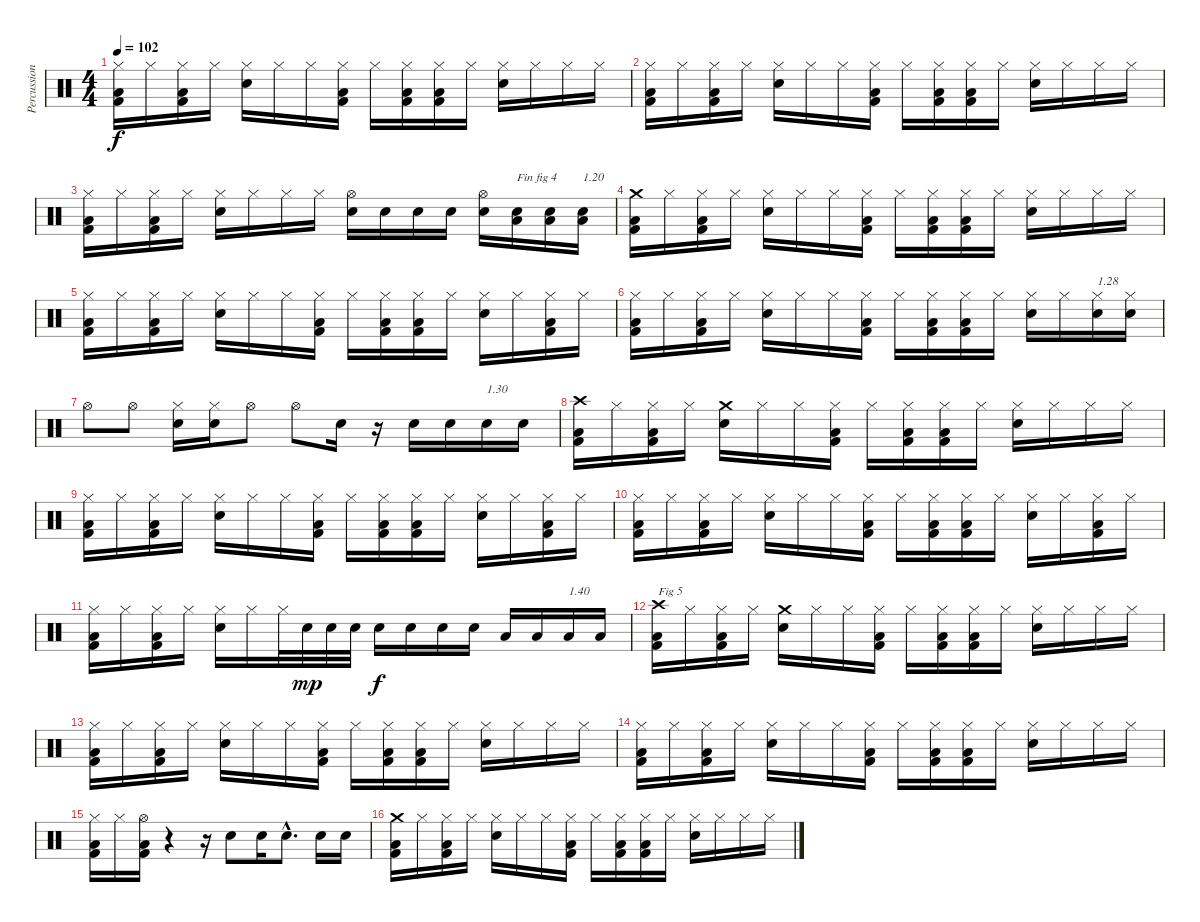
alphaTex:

\track ("Percussions" "Percussion") {instrument percussion}
\staff {score}
\articulation defaults
\ts (4 4)
\tempo 102
\clef neutral
\ks c
("Kick (hit) 2" "Low Floor Tom (hit)" "Hi-Hat (closed)").16{dy f} "Hi-Hat (closed)".16 ("Kick (hit) 2" "Low Floor Tom (hit)" "Hi-Hat (closed)").16 "Hi-Hat (closed)".16 ("Snare (hit) 2" "Hi-Hat (closed)").16 "Hi-Hat (closed)".16 "Hi-Hat (closed)".16 ("Kick (hit) 2" "Low Floor Tom (hit)" "Hi-Hat (closed)").16 "Hi-Hat (closed)".16 ("Kick (hit) 2" "Low Floor Tom (hit)" "Hi-Hat (closed)").16 ("Kick (hit) 2" "Low Floor Tom (hit)" "Hi-Hat (closed)").16 "Hi-Hat (closed)".16 ("Snare (hit) 2" "Hi-Hat (closed)").16 "Hi-Hat (closed)".16 "Hi-Hat (closed)".16 "Hi-Hat (closed)".16 |
("Kick (hit) 2" "Low Floor Tom (hit)" "Hi-Hat (closed)").16 "Hi-Hat (closed)".16 ("Kick (hit) 2" "Low Floor Tom (hit)" "Hi-Hat (closed)").16 "Hi-Hat (closed)".16 ("Snare (hit) 2" "Hi-Hat (closed)").16 "Hi-Hat (closed)".16 "Hi-Hat (closed)".16 ("Kick (hit) 2" "Low Floor Tom (hit)" "Hi-Hat (closed)").16 "Hi-Hat (closed)".16 ("Kick (hit) 2" "Low Floor Tom (hit)" "Hi-Hat (closed)").16 ("Kick (hit) 2" "Low Floor Tom (hit)" "Hi-Hat (closed)").16 "Hi-Hat (closed)".16 ("Snare (hit) 2" "Hi-Hat (closed)").16 "Hi-Hat (closed)".16 "Hi-Hat (closed)".16 "Hi-Hat (closed)".16 |
("Kick (hit) 2" "Low Floor Tom (hit)" "Hi-Hat (closed)").16 "Hi-Hat (closed)".16 ("Kick (hit) 2" "Low Floor Tom (hit)" "Hi-Hat (closed)").16 "Hi-Hat (closed)".16 ("Snare (hit) 2" "Hi-Hat (closed)").16 "Hi-Hat (closed)".16 "Hi-Hat (closed)".16 "Hi-Hat (closed)".16 ("Snare (hit) 2" "Hi-Hat (open)").16 "Electric Snare (hit)".16 "Electric Snare (hit)".16 "Electric Snare (hit)".16 ("Snare (hit) 2" "Hi-Hat (open)").16 ("Low Tom (hit)" "Electric Snare (hit)").16{txt "Fin fig 4"} ("Low Tom (hit)" "Electric Snare (hit)").16 ("Low Tom (hit)" "Electric Snare (hit)").16{txt "1.20"} |
("Kick (hit) 2" "Low Floor Tom (hit)" "Crash medium (hit)").16 "Hi-Hat (closed)".16 ("Kick (hit) 2" "Low Floor Tom (hit)" "Hi-Hat (closed)").16 "Hi-Hat (closed)".16 ("Snare (hit) 2" "Hi-Hat (closed)").16 "Hi-Hat (closed)".16 "Hi-Hat (closed)".16 ("Kick (hit) 2" "Low Floor Tom (hit)" "Hi-Hat (closed)").16 "Hi-Hat (closed)".16 ("Kick (hit) 2" "Low Floor Tom (hit)" "Hi-Hat (closed)").16 ("Kick (hit) 2" "Low Floor Tom (hit)" "Hi-Hat (closed)").16 "Hi-Hat (closed)".16 ("Snare (hit) 2" "Hi-Hat (closed)").16 "Hi-Hat (closed)".16 "Hi-Hat (closed)".16 "Hi-Hat (closed)".16 |
("Kick (hit) 2" "Low Floor Tom (hit)" "Hi-Hat (closed)").16 "Hi-Hat (closed)".16 ("Kick (hit) 2" "Low Floor Tom (hit)" "Hi-Hat (closed)").16 "Hi-Hat (closed)".16 ("Snare (hit) 2" "Hi-Hat (closed)").16 "Hi-Hat (closed)".16 "Hi-Hat (closed)".16 ("Kick (hit) 2" "Low Floor Tom (hit)" "Hi-Hat (closed)").16 "Hi-Hat (closed)".16 ("Kick (hit) 2" "Low Floor Tom (hit)" "Hi-Hat (closed)").16 ("Kick (hit) 2" "Low Floor Tom (hit)" "Hi-Hat (closed)").16 "Hi-Hat (closed)".16 ("Snare (hit) 2" "Hi-Hat (closed)").16 "Hi-Hat (closed)".16 ("Kick (hit) 2" "Low Floor Tom (hit)" "Hi-Hat (closed)").16 "Hi-Hat (closed)".16 |
("Kick (hit) 2" "Low Floor Tom (hit)" "Hi-Hat (closed)").16 "Hi-Hat (closed)".16 ("Kick (hit) 2" "Low Floor Tom (hit)" "Hi-Hat (closed)").16 "Hi-Hat (closed)".16 ("Snare (hit) 2" "Hi-Hat (closed)").16 "Hi-Hat (closed)".16 "Hi-Hat (closed)".16 ("Kick (hit) 2" "Low Floor Tom (hit)" "Hi-Hat (closed)").16 "Hi-Hat (closed)".16 ("Kick (hit) 2" "Low Floor Tom (hit)" "Hi-Hat (closed)").16 ("Kick (hit) 2" "Low Floor Tom (hit)" "Hi-Hat (closed)").16 "Hi-Hat (closed)".16 ("Snare (hit) 2" "Hi-Hat (closed)").16 "Hi-Hat (closed)".16 ("Snare (hit) 2" "Hi-Hat (closed)").16{txt "1.28"} ("Snare (hit) 2" "Hi-Hat (closed)").16 |
"Hi-Hat (open)".8 "Hi-Hat (open)".8 ("Snare (hit) 2" "Hi-Hat (closed)").16 ("Snare (hit) 2" "Hi-Hat (closed)").16 "Hi-Hat (open)".8 "Hi-Hat (open)".8 "Snare (hit) 2".16 r.16 "Snare (hit) 2".16 "Snare (hit) 2".16 "Snare (hit) 2".16{txt "1.30"} "Snare (hit) 2".16 |
("Kick (hit) 2" "Low Floor Tom (hit)" "Crash high (hit)").16 "Hi-Hat (closed)".16 ("Kick (hit) 2" "Low Floor Tom (hit)" "Hi-Hat (closed)").16 "Hi-Hat (closed)".16 ("Snare (hit) 2" "Crash medium (hit)").16 "Hi-Hat (closed)".16 "Hi-Hat (closed)".16 ("Kick (hit) 2" "Low Floor Tom (hit)" "Hi-Hat (closed)").16 "Hi-Hat (closed)".16 ("Kick (hit) 2" "Low Floor Tom (hit)" "Hi-Hat (closed)").16 ("Kick (hit) 2" "Low Floor Tom (hit)" "Hi-Hat (closed)").16 "Hi-Hat (closed)".16 ("Snare (hit) 2" "Hi-Hat (closed)").16 "Hi-Hat (closed)".16 "Hi-Hat (closed)".16 "Hi-Hat (closed)".16 |
("Kick (hit) 2" "Low Floor Tom (hit)" "Hi-Hat (closed)").16 "Hi-Hat (closed)".16 ("Kick (hit) 2" "Low Floor Tom (hit)" "Hi-Hat (closed)").16 "Hi-Hat (closed)".16 ("Snare (hit) 2" "Hi-Hat (closed)").16 "Hi-Hat (closed)".16 "Hi-Hat (closed)".16 ("Kick (hit) 2" "Low Floor Tom (hit)" "Hi-Hat (closed)").16 "Hi-Hat (closed)".16 ("Kick (hit) 2" "Low Floor Tom (hit)" "Hi-Hat (closed)").16 ("Kick (hit) 2" "Low Floor Tom (hit)" "Hi-Hat (closed)").16 "Hi-Hat (closed)".16 ("Snare (hit) 2" "Hi-Hat (closed)").16 "Hi-Hat (closed)".16 ("Kick (hit) 2" "Low Floor Tom (hit)" "Hi-Hat (closed)").16 "Hi-Hat (closed)".16 |
("Kick (hit) 2" "Low Floor Tom (hit)" "Hi-Hat (closed)").16 "Hi-Hat (closed)".16 ("Kick (hit) 2" "Low Floor Tom (hit)" "Hi-Hat (closed)").16 "Hi-Hat (closed)".16 ("Snare (hit) 2" "Hi-Hat (closed)").16 "Hi-Hat (closed)".16 "Hi-Hat (closed)".16 ("Kick (hit) 2" "Low Floor Tom (hit)" "Hi-Hat (closed)").16 "Hi-Hat (closed)".16 ("Kick (hit) 2" "Low Floor Tom (hit)" "Hi-Hat (closed)").16 ("Kick (hit) 2" "Low Floor Tom (hit)" "Hi-Hat (closed)").16 "Hi-Hat (closed)".16 ("Snare (hit) 2" "Hi-Hat (closed)").16 "Hi-Hat (closed)".16 ("Kick (hit) 2" "Low Floor Tom (hit)" "Hi-Hat (closed)").16 "Hi-Hat (closed)".16 |
("Kick (hit) 2" "Low Floor Tom (hit)" "Hi-Hat (closed)").16 "Hi-Hat (closed)".16 ("Kick (hit) 2" "Low Floor Tom (hit)" "Hi-Hat (closed)").16 "Hi-Hat (closed)".16 ("Snare (hit) 2" "Hi-Hat (closed)").16 "Hi-Hat (closed)".16 "Hi-Hat (closed)".32 "Snare (hit) 2".32{dy mp} "Snare (hit) 2".32 "Snare (hit) 2".32 "Snare (hit) 2".16{dy f} "Snare (hit) 2".16 "Snare (hit) 2".16 "Snare (hit) 2".16 "Low Tom (hit)".16 "Low Tom (hit)".16 "Low Tom (hit)".16{txt "1.40"} "Low Tom (hit)".16 |
("Kick (hit) 2" "Low Floor Tom (hit)" "Crash high (hit)").16{txt "Fig 5"} "Hi-Hat (closed)".16 ("Kick (hit) 2" "Low Floor Tom (hit)" "Hi-Hat (closed)").16 "Hi-Hat (closed)".16 ("Snare (hit) 2" "Crash medium (hit)").16 "Hi-Hat (closed)".16 "Hi-Hat (closed)".16 ("Kick (hit) 2" "Low Floor Tom (hit)" "Hi-Hat (closed)").16 "Hi-Hat (closed)".16 ("Kick (hit) 2" "Low Floor Tom (hit)" "Hi-Hat (closed)").16 ("Kick (hit) 2" "Low Floor Tom (hit)" "Hi-Hat (closed)").16 "Hi-Hat (closed)".16 ("Snare (hit) 2" "Hi-Hat (closed)").16 "Hi-Hat (closed)".16 "Hi-Hat (closed)".16 "Hi-Hat (closed)".16 |
("Kick (hit) 2" "Low Floor Tom (hit)" "Hi-Hat (closed)").16 "Hi-Hat (closed)".16 ("Kick (hit) 2" "Low Floor Tom (hit)" "Hi-Hat (closed)").16 "Hi-Hat (closed)".16 ("Snare (hit) 2" "Hi-Hat (closed)").16 "Hi-Hat (closed)".16 "Hi-Hat (closed)".16 ("Kick (hit) 2" "Low Floor Tom (hit)" "Hi-Hat (closed)").16 "Hi-Hat (closed)".16 ("Kick (hit) 2" "Low Floor Tom (hit)" "Hi-Hat (closed)").16 ("Kick (hit) 2" "Low Floor Tom (hit)" "Hi-Hat (closed)").16 "Hi-Hat (closed)".16 ("Snare (hit) 2" "Hi-Hat (closed)").16 "Hi-Hat (closed)".16 "Hi-Hat (closed)".16 "Hi-Hat (closed)".16 |
("Kick (hit) 2" "Low Floor Tom (hit)" "Hi-Hat (closed)").16 "Hi-Hat (closed)".16 ("Kick (hit) 2" "Low Floor Tom (hit)" "Hi-Hat (closed)").16 "Hi-Hat (closed)".16 ("Snare (hit) 2" "Hi-Hat (closed)").16 "Hi-Hat (closed)".16 "Hi-Hat (closed)".16 ("Kick (hit) 2" "Low Floor Tom (hit)" "Hi-Hat (closed)").16 "Hi-Hat (closed)".16 ("Kick (hit) 2" "Low Floor Tom (hit)" "Hi-Hat (closed)").16 ("Kick (hit) 2" "Low Floor Tom (hit)" "Hi-Hat (closed)").16 "Hi-Hat (closed)".16 ("Snare (hit) 2" "Hi-Hat (closed)").16 "Hi-Hat (closed)".16 "Hi-Hat (closed)".16 "Hi-Hat (closed)".16 |
("Kick (hit) 2" "Low Floor Tom (hit)" "Hi-Hat (closed)").16 "Hi-Hat (closed)".16 ("Kick (hit) 2" "Low Floor Tom (hit)" "Hi-Hat (open)").16 r.4 r.16 "Snare (hit) 2".8 "Snare (hit) 2".16 "Snare (hit) 2"{hac}.8{d} "Snare (hit) 2".16 "Snare (hit) 2".16 |
("Kick (hit) 2" "Low Floor Tom (hit)" "Crash medium (hit)").16 "Hi-Hat (closed)".16 ("Kick (hit) 2" "Low Floor Tom (hit)" "Hi-Hat (closed)").16 "Hi-Hat (closed)".16 ("Snare (hit) 2" "Hi-Hat (closed)").16 "Hi-Hat (closed)".16 "Hi-Hat (closed)".16 ("Kick (hit) 2" "Low Floor Tom (hit)" "Hi-Hat (closed)").16 "Hi-Hat (closed)".16 ("Kick (hit) 2" "Low Floor Tom (hit)" "Hi-Hat (closed)").16 ("Kick (hit) 2" "Low Floor Tom (hit)" "Hi-Hat (closed)").16 "Hi-Hat (closed)".16 ("Snare (hit) 2" "Hi-Hat (closed)").16 "Hi-Hat (closed)".16 "Hi-Hat (closed)".16 "Hi-Hat (closed)".16
